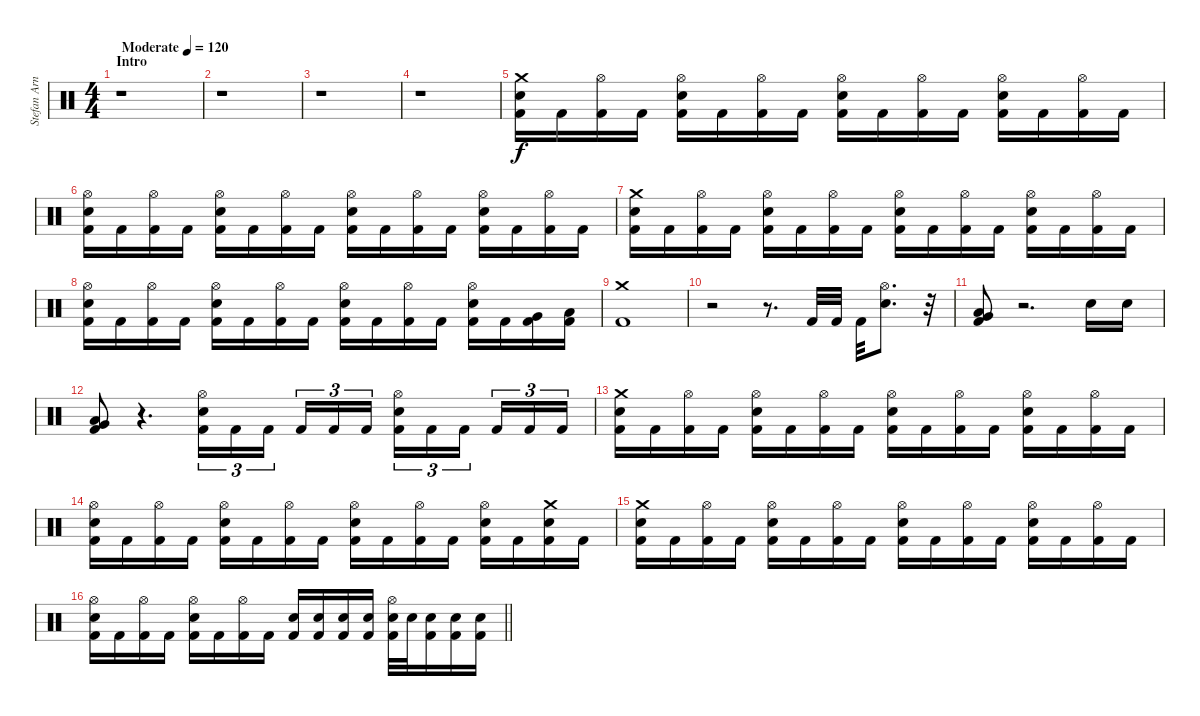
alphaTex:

\track ("Stefan Arnold" "Stefan Arn") {instrument percussion}
\staff {score}
\articulation defaults
\ts (4 4)
\section ("" "Intro")
\tempo (120 "Moderate")
\clef neutral
\ks c
r.1{dy f} |
r.1 |
r.1 |
r.1 |
("Crash medium (hit)" "Electric Snare (hit)" "Kick (hit) 2").16 "Kick (hit) 2".16 ("Hi-Hat (open)" "Kick (hit) 2").16 "Kick (hit) 2".16 ("Hi-Hat (open)" "Electric Snare (hit)" "Kick (hit) 2").16 "Kick (hit) 2".16 ("Hi-Hat (open)" "Kick (hit) 2").16 "Kick (hit) 2".16 ("Hi-Hat (open)" "Electric Snare (hit)" "Kick (hit) 2").16 "Kick (hit) 2".16 ("Hi-Hat (open)" "Kick (hit) 2").16 "Kick (hit) 2".16 ("Hi-Hat (open)" "Electric Snare (hit)" "Kick (hit) 2").16 "Kick (hit) 2".16 ("Hi-Hat (open)" "Kick (hit) 2").16 "Kick (hit) 2".16 |
("Hi-Hat (open)" "Electric Snare (hit)" "Kick (hit) 2").16 "Kick (hit) 2".16 ("Hi-Hat (open)" "Kick (hit) 2").16 "Kick (hit) 2".16 ("Hi-Hat (open)" "Electric Snare (hit)" "Kick (hit) 2").16 "Kick (hit) 2".16 ("Hi-Hat (open)" "Kick (hit) 2").16 "Kick (hit) 2".16 ("Hi-Hat (open)" "Electric Snare (hit)" "Kick (hit) 2").16 "Kick (hit) 2".16 ("Hi-Hat (open)" "Kick (hit) 2").16 "Kick (hit) 2".16 ("Hi-Hat (open)" "Electric Snare (hit)" "Kick (hit) 2").16 "Kick (hit) 2".16 ("Hi-Hat (open)" "Kick (hit) 2").16 "Kick (hit) 2".16 |
("Crash medium (hit)" "Electric Snare (hit)" "Kick (hit) 2").16 "Kick (hit) 2".16 ("Hi-Hat (open)" "Kick (hit) 2").16 "Kick (hit) 2".16 ("Hi-Hat (open)" "Electric Snare (hit)" "Kick (hit) 2").16 "Kick (hit) 2".16 ("Hi-Hat (open)" "Kick (hit) 2").16 "Kick (hit) 2".16 ("Hi-Hat (open)" "Electric Snare (hit)" "Kick (hit) 2").16 "Kick (hit) 2".16 ("Hi-Hat (open)" "Kick (hit) 2").16 "Kick (hit) 2".16 ("Hi-Hat (open)" "Electric Snare (hit)" "Kick (hit) 2").16 "Kick (hit) 2".16 ("Hi-Hat (open)" "Kick (hit) 2").16 "Kick (hit) 2".16 |
("Hi-Hat (open)" "Electric Snare (hit)" "Kick (hit) 2").16 "Kick (hit) 2".16 ("Hi-Hat (open)" "Kick (hit) 2").16 "Kick (hit) 2".16 ("Hi-Hat (open)" "Electric Snare (hit)" "Kick (hit) 2").16 "Kick (hit) 2".16 ("Hi-Hat (open)" "Kick (hit) 2").16 "Kick (hit) 2".16 ("Hi-Hat (open)" "Electric Snare (hit)" "Kick (hit) 2").16 "Kick (hit) 2".16 ("Hi-Hat (open)" "Kick (hit) 2").16 "Kick (hit) 2".16 ("Hi-Hat (open)" "Electric Snare (hit)" "Kick (hit) 2").16 "Kick (hit) 2".16 ("Very Low Tom (hit)" "Kick (hit) 2").16 ("Low Floor Tom (hit)" "Kick (hit) 2").16 |
("Crash medium (hit)" "Kick (hit) 2").1 |
r.2 r.8{d} "Kick (hit) 2".32 "Kick (hit) 2".32 "Kick (hit) 2".32 ("Hi-Hat (open)" "Electric Snare (hit)").8{d} r.32 |
("Very Low Tom (hit)" "Low Floor Tom (hit)" "Kick (hit) 2").8 r.2{d} "Electric Snare (hit)".16 "Electric Snare (hit)".16 |
("Very Low Tom (hit)" "Low Floor Tom (hit)" "Kick (hit) 2").8 r.4{d} ("Hi-Hat (open)" "Electric Snare (hit)" "Kick (hit) 2").16{tu (3 2)} "Kick (hit) 2".16{tu (3 2)} "Kick (hit) 2".16{tu (3 2) beam splitsecondary} "Kick (hit) 2".16{tu (3 2)} "Kick (hit) 2".16{tu (3 2)} "Kick (hit) 2".16{tu (3 2)} ("Hi-Hat (open)" "Electric Snare (hit)" "Kick (hit) 2").16{tu (3 2)} "Kick (hit) 2".16{tu (3 2)} "Kick (hit) 2".16{tu (3 2) beam splitsecondary} "Kick (hit) 2".16{tu (3 2)} "Kick (hit) 2".16{tu (3 2)} "Kick (hit) 2".16{tu (3 2)} |
("Crash medium (hit)" "Electric Snare (hit)" "Kick (hit) 2").16 "Kick (hit) 2".16 ("Hi-Hat (open)" "Kick (hit) 2").16 "Kick (hit) 2".16 ("Hi-Hat (open)" "Electric Snare (hit)" "Kick (hit) 2").16 "Kick (hit) 2".16 ("Hi-Hat (open)" "Kick (hit) 2").16 "Kick (hit) 2".16 ("Hi-Hat (open)" "Electric Snare (hit)" "Kick (hit) 2").16 "Kick (hit) 2".16 ("Hi-Hat (open)" "Kick (hit) 2").16 "Kick (hit) 2".16 ("Hi-Hat (open)" "Electric Snare (hit)" "Kick (hit) 2").16 "Kick (hit) 2".16 ("Hi-Hat (open)" "Kick (hit) 2").16 "Kick (hit) 2".16 |
("Hi-Hat (open)" "Electric Snare (hit)" "Kick (hit) 2").16 "Kick (hit) 2".16 ("Hi-Hat (open)" "Kick (hit) 2").16 "Kick (hit) 2".16 ("Hi-Hat (open)" "Electric Snare (hit)" "Kick (hit) 2").16 "Kick (hit) 2".16 ("Hi-Hat (open)" "Kick (hit) 2").16 "Kick (hit) 2".16 ("Hi-Hat (open)" "Electric Snare (hit)" "Kick (hit) 2").16 "Kick (hit) 2".16 ("Hi-Hat (open)" "Kick (hit) 2").16 "Kick (hit) 2".16 ("Hi-Hat (open)" "Electric Snare (hit)" "Kick (hit) 2").16 "Kick (hit) 2".16 ("Crash medium (hit)" "Electric Snare (hit)" "Kick (hit) 2").16 "Kick (hit) 2".16 |
("Crash medium (hit)" "Electric Snare (hit)" "Kick (hit) 2").16 "Kick (hit) 2".16 ("Hi-Hat (open)" "Kick (hit) 2").16 "Kick (hit) 2".16 ("Hi-Hat (open)" "Electric Snare (hit)" "Kick (hit) 2").16 "Kick (hit) 2".16 ("Hi-Hat (open)" "Kick (hit) 2").16 "Kick (hit) 2".16 ("Hi-Hat (open)" "Electric Snare (hit)" "Kick (hit) 2").16 "Kick (hit) 2".16 ("Hi-Hat (open)" "Kick (hit) 2").16 "Kick (hit) 2".16 ("Hi-Hat (open)" "Electric Snare (hit)" "Kick (hit) 2").16 "Kick (hit) 2".16 ("Hi-Hat (open)" "Kick (hit) 2").16 "Kick (hit) 2".16 |
\barLineRight lightlight
("Hi-Hat (open)" "Electric Snare (hit)" "Kick (hit) 2").16 "Kick (hit) 2".16 ("Hi-Hat (open)" "Kick (hit) 2").16 "Kick (hit) 2".16 ("Hi-Hat (open)" "Electric Snare (hit)" "Kick (hit) 2").16 "Kick (hit) 2".16 ("Hi-Hat (open)" "Kick (hit) 2").16 "Kick (hit) 2".16 ("Electric Snare (hit)" "Kick (hit) 2").16 ("Electric Snare (hit)" "Kick (hit) 2").16 ("Electric Snare (hit)" "Kick (hit) 2").16 ("Electric Snare (hit)" "Kick (hit) 2").16 ("Hi-Hat (open)" "Electric Snare (hit)" "Kick (hit) 2").32 "Electric Snare (hit)".32 ("Electric Snare (hit)" "Kick (hit) 2").16 ("Electric Snare (hit)" "Kick (hit) 2").16 ("Electric Snare (hit)" "Kick (hit) 2").16
